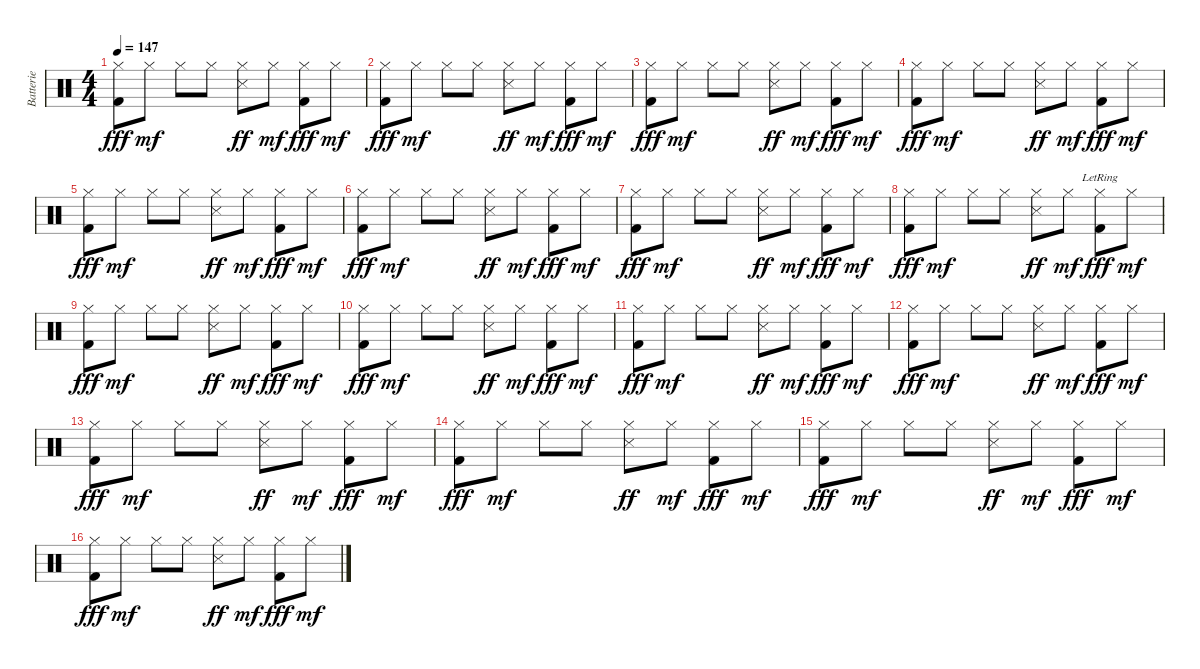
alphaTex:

\track ("Batterie" "Batterie") {instrument percussion}
\staff {score}
\articulation defaults
\ts (4 4)
\tempo 147
\clef neutral
\ks c
("Hi-Hat (closed)" "Kick (hit) 2").8{dy fff} "Hi-Hat (closed)".8{dy mf} "Hi-Hat (closed)".8 "Hi-Hat (closed)".8 ("Hi-Hat (closed)" "Snare (side stick) 3").8{dy ff} "Hi-Hat (closed)".8{dy mf} ("Hi-Hat (closed)" "Kick (hit) 2").8{dy fff} "Hi-Hat (closed)".8{dy mf} |
("Hi-Hat (closed)" "Kick (hit) 2").8{dy fff} "Hi-Hat (closed)".8{dy mf} "Hi-Hat (closed)".8 "Hi-Hat (closed)".8 ("Hi-Hat (closed)" "Snare (side stick) 3").8{dy ff} "Hi-Hat (closed)".8{dy mf} ("Hi-Hat (closed)" "Kick (hit) 2").8{dy fff} "Hi-Hat (closed)".8{dy mf} |
("Hi-Hat (closed)" "Kick (hit) 2").8{dy fff} "Hi-Hat (closed)".8{dy mf} "Hi-Hat (closed)".8 "Hi-Hat (closed)".8 ("Hi-Hat (closed)" "Snare (side stick) 3").8{dy ff} "Hi-Hat (closed)".8{dy mf} ("Hi-Hat (closed)" "Kick (hit) 2").8{dy fff} "Hi-Hat (closed)".8{dy mf} |
("Hi-Hat (closed)" "Kick (hit) 2").8{dy fff} "Hi-Hat (closed)".8{dy mf} "Hi-Hat (closed)".8 "Hi-Hat (closed)".8 ("Hi-Hat (closed)" "Snare (side stick) 3").8{dy ff} "Hi-Hat (closed)".8{dy mf} ("Hi-Hat (closed)" "Kick (hit) 2").8{dy fff} "Hi-Hat (closed)".8{dy mf} |
("Hi-Hat (closed)" "Kick (hit) 2").8{dy fff} "Hi-Hat (closed)".8{dy mf} "Hi-Hat (closed)".8 "Hi-Hat (closed)".8 ("Hi-Hat (closed)" "Snare (side stick) 3").8{dy ff} "Hi-Hat (closed)".8{dy mf} ("Hi-Hat (closed)" "Kick (hit) 2").8{dy fff} "Hi-Hat (closed)".8{dy mf} |
("Hi-Hat (closed)" "Kick (hit) 2").8{dy fff} "Hi-Hat (closed)".8{dy mf} "Hi-Hat (closed)".8 "Hi-Hat (closed)".8 ("Hi-Hat (closed)" "Snare (side stick) 3").8{dy ff} "Hi-Hat (closed)".8{dy mf} ("Hi-Hat (closed)" "Kick (hit) 2").8{dy fff} "Hi-Hat (closed)".8{dy mf} |
("Hi-Hat (closed)" "Kick (hit) 2").8{dy fff} "Hi-Hat (closed)".8{dy mf} "Hi-Hat (closed)".8 "Hi-Hat (closed)".8 ("Hi-Hat (closed)" "Snare (side stick) 3").8{dy ff} "Hi-Hat (closed)".8{dy mf} ("Hi-Hat (closed)" "Kick (hit) 2").8{dy fff} "Hi-Hat (closed)".8{dy mf} |
("Hi-Hat (closed)" "Kick (hit) 2").8{dy fff} "Hi-Hat (closed)".8{dy mf} "Hi-Hat (closed)".8 "Hi-Hat (closed)".8 ("Hi-Hat (closed)" "Snare (side stick) 3").8{dy ff} "Hi-Hat (closed)".8{dy mf} ("Hi-Hat (closed)"{lr} "Kick (hit) 2").8{dy fff} "Hi-Hat (closed)".8{dy mf} |
("Hi-Hat (closed)" "Kick (hit) 2").8{dy fff} "Hi-Hat (closed)".8{dy mf} "Hi-Hat (closed)".8 "Hi-Hat (closed)".8 ("Hi-Hat (closed)" "Snare (side stick) 3").8{dy ff} "Hi-Hat (closed)".8{dy mf} ("Hi-Hat (closed)" "Kick (hit) 2").8{dy fff} "Hi-Hat (closed)".8{dy mf} |
("Hi-Hat (closed)" "Kick (hit) 2").8{dy fff} "Hi-Hat (closed)".8{dy mf} "Hi-Hat (closed)".8 "Hi-Hat (closed)".8 ("Hi-Hat (closed)" "Snare (side stick) 3").8{dy ff} "Hi-Hat (closed)".8{dy mf} ("Hi-Hat (closed)" "Kick (hit) 2").8{dy fff} "Hi-Hat (closed)".8{dy mf} |
("Hi-Hat (closed)" "Kick (hit) 2").8{dy fff} "Hi-Hat (closed)".8{dy mf} "Hi-Hat (closed)".8 "Hi-Hat (closed)".8 ("Hi-Hat (closed)" "Snare (side stick) 3").8{dy ff} "Hi-Hat (closed)".8{dy mf} ("Hi-Hat (closed)" "Kick (hit) 2").8{dy fff} "Hi-Hat (closed)".8{dy mf} |
("Hi-Hat (closed)" "Kick (hit) 2").8{dy fff} "Hi-Hat (closed)".8{dy mf} "Hi-Hat (closed)".8 "Hi-Hat (closed)".8 ("Hi-Hat (closed)" "Snare (side stick) 3").8{dy ff} "Hi-Hat (closed)".8{dy mf} ("Hi-Hat (closed)" "Kick (hit) 2").8{dy fff} "Hi-Hat (closed)".8{dy mf} |
("Hi-Hat (closed)" "Kick (hit) 2").8{dy fff} "Hi-Hat (closed)".8{dy mf} "Hi-Hat (closed)".8 "Hi-Hat (closed)".8 ("Hi-Hat (closed)" "Snare (side stick) 3").8{dy ff} "Hi-Hat (closed)".8{dy mf} ("Hi-Hat (closed)" "Kick (hit) 2").8{dy fff} "Hi-Hat (closed)".8{dy mf} |
("Hi-Hat (closed)" "Kick (hit) 2").8{dy fff} "Hi-Hat (closed)".8{dy mf} "Hi-Hat (closed)".8 "Hi-Hat (closed)".8 ("Hi-Hat (closed)" "Snare (side stick) 3").8{dy ff} "Hi-Hat (closed)".8{dy mf} ("Hi-Hat (closed)" "Kick (hit) 2").8{dy fff} "Hi-Hat (closed)".8{dy mf} |
("Hi-Hat (closed)" "Kick (hit) 2").8{dy fff} "Hi-Hat (closed)".8{dy mf} "Hi-Hat (closed)".8 "Hi-Hat (closed)".8 ("Hi-Hat (closed)" "Snare (side stick) 3").8{dy ff} "Hi-Hat (closed)".8{dy mf} ("Hi-Hat (closed)" "Kick (hit) 2").8{dy fff} "Hi-Hat (closed)".8{dy mf} |
("Hi-Hat (closed)" "Kick (hit) 2").8{dy fff} "Hi-Hat (closed)".8{dy mf} "Hi-Hat (closed)".8 "Hi-Hat (closed)".8 ("Hi-Hat (closed)" "Snare (side stick) 3").8{dy ff} "Hi-Hat (closed)".8{dy mf} ("Hi-Hat (closed)" "Kick (hit) 2").8{dy fff} "Hi-Hat (closed)".8{dy mf}
